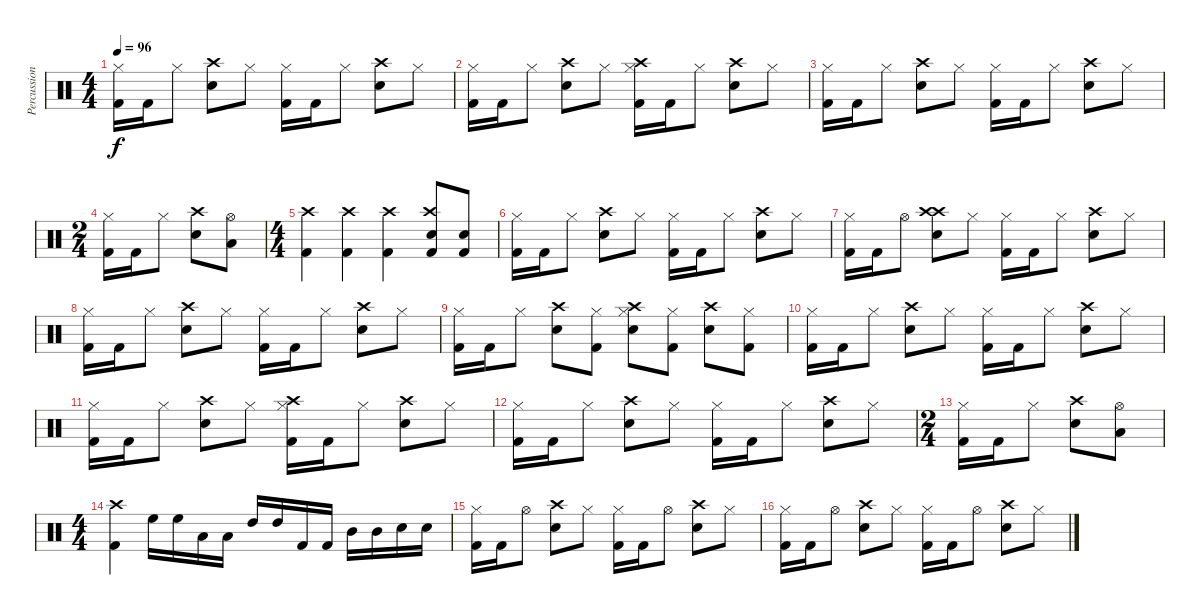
\track ("Percussion" "Percussion") {instrument percussion}
\staff {score}
\articulation defaults
\ts (4 4)
\tempo 96
\clef neutral
\ks c
("Hi-Hat (closed)" "Kick (hit) 2").16{dy f} "Kick (hit) 2".16 "Hi-Hat (closed)".8 ("Crash high (hit)" "Snare (hit) 2").8 "Hi-Hat (closed)".8 ("Hi-Hat (closed)" "Kick (hit) 2").16 "Kick (hit) 2".16 "Hi-Hat (closed)".8 ("Crash high (hit)" "Snare (hit) 2").8 "Hi-Hat (closed)".8 |
("Hi-Hat (closed)" "Kick (hit) 2").16 "Kick (hit) 2".16 "Hi-Hat (closed)".8 ("Crash high (hit)" "Snare (hit) 2").8 "Hi-Hat (closed)".8 ("Hi-Hat (closed)" "Crash high (hit)" "Kick (hit) 2").16 "Kick (hit) 2".16 "Hi-Hat (closed)".8 ("Crash high (hit)" "Snare (hit) 2").8 "Hi-Hat (closed)".8 |
("Hi-Hat (closed)" "Kick (hit) 2").16 "Kick (hit) 2".16 "Hi-Hat (closed)".8 ("Crash high (hit)" "Snare (hit) 2").8 "Hi-Hat (closed)".8 ("Hi-Hat (closed)" "Kick (hit) 2").16 "Kick (hit) 2".16 "Hi-Hat (closed)".8 ("Crash high (hit)" "Snare (hit) 2").8 "Hi-Hat (closed)".8 |
\ts (2 4)
("Hi-Hat (closed)" "Kick (hit) 2").16 "Kick (hit) 2".16 "Hi-Hat (closed)".8 ("Crash high (hit)" "Snare (hit) 2").8 ("Hi-Hat (open)" "Low Floor Tom (hit)").8 |
\ts (4 4)
("Crash high (hit)" "Kick (hit) 2").4 ("Crash high (hit)" "Kick (hit) 2").4 ("Crash high (hit)" "Kick (hit) 2").4 ("Crash high (hit)" "Kick (hit) 2" "Snare (hit) 2").8 ("Kick (hit) 2" "Snare (hit) 2").8 |
("Hi-Hat (closed)" "Kick (hit) 2").16 "Kick (hit) 2".16 "Hi-Hat (closed)".8 ("Crash high (hit)" "Snare (hit) 2").8 "Hi-Hat (closed)".8 ("Hi-Hat (closed)" "Kick (hit) 2").16 "Kick (hit) 2".16 "Hi-Hat (closed)".8 ("Crash high (hit)" "Snare (hit) 2").8 "Hi-Hat (closed)".8 |
("Hi-Hat (closed)" "Kick (hit) 2").16 "Kick (hit) 2".16 "Hi-Hat (open)".8 ("Crash high (hit)" "Crash high (hit)" "Snare (hit) 2").8 "Hi-Hat (closed)".8 ("Hi-Hat (closed)" "Kick (hit) 2").16 "Kick (hit) 2".16 "Hi-Hat (closed)".8 ("Crash high (hit)" "Snare (hit) 2").8 "Hi-Hat (closed)".8 |
("Hi-Hat (closed)" "Kick (hit) 2").16 "Kick (hit) 2".16 "Hi-Hat (closed)".8 ("Crash high (hit)" "Snare (hit) 2").8 "Hi-Hat (closed)".8 ("Hi-Hat (closed)" "Kick (hit) 2").16 "Kick (hit) 2".16 "Hi-Hat (closed)".8 ("Crash high (hit)" "Snare (hit) 2").8 "Hi-Hat (closed)".8 |
("Hi-Hat (closed)" "Kick (hit) 2").16 "Kick (hit) 2".16 "Hi-Hat (closed)".8 ("Crash high (hit)" "Snare (hit) 2").8 ("Hi-Hat (closed)" "Kick (hit) 2").8 ("Hi-Hat (closed)" "Crash high (hit)" "Snare (hit) 2").8 ("Hi-Hat (closed)" "Kick (hit) 2").8 ("Crash high (hit)" "Snare (hit) 2").8 ("Hi-Hat (closed)" "Kick (hit) 2").8 |
("Hi-Hat (closed)" "Kick (hit) 2").16 "Kick (hit) 2".16 "Hi-Hat (closed)".8 ("Crash high (hit)" "Snare (hit) 2").8 "Hi-Hat (closed)".8 ("Hi-Hat (closed)" "Kick (hit) 2").16 "Kick (hit) 2".16 "Hi-Hat (closed)".8 ("Crash high (hit)" "Snare (hit) 2").8 "Hi-Hat (closed)".8 |
("Hi-Hat (closed)" "Kick (hit) 2").16 "Kick (hit) 2".16 "Hi-Hat (closed)".8 ("Crash high (hit)" "Snare (hit) 2").8 "Hi-Hat (closed)".8 ("Hi-Hat (closed)" "Crash high (hit)" "Kick (hit) 2").16 "Kick (hit) 2".16 "Hi-Hat (closed)".8 ("Crash high (hit)" "Snare (hit) 2").8 "Hi-Hat (closed)".8 |
("Hi-Hat (closed)" "Kick (hit) 2").16 "Kick (hit) 2".16 "Hi-Hat (closed)".8 ("Crash high (hit)" "Snare (hit) 2").8 "Hi-Hat (closed)".8 ("Hi-Hat (closed)" "Kick (hit) 2").16 "Kick (hit) 2".16 "Hi-Hat (closed)".8 ("Crash high (hit)" "Snare (hit) 2").8 "Hi-Hat (closed)".8 |
\ts (2 4)
("Hi-Hat (closed)" "Kick (hit) 2").16 "Kick (hit) 2".16 "Hi-Hat (closed)".8 ("Crash high (hit)" "Snare (hit) 2").8 ("Hi-Hat (open)" "Low Floor Tom (hit)").8 |
\ts (4 4)
("Crash high (hit)" "Kick (hit) 2").4 "High Floor Tom (hit)".16 "High Floor Tom (hit)".16 "Low Floor Tom (hit)".16 "Low Floor Tom (hit)".16 "High Tom (hit)".16 "High Tom (hit)".16 "Kick (hit) 2".16 "Kick (hit) 2".16 "Mid Tom (hit)".16 "Mid Tom (hit)".16 "Snare (hit) 2".16 "Snare (hit) 2".16 |
("Hi-Hat (closed)" "Kick (hit) 2").16 "Kick (hit) 2".16 "Hi-Hat (open)".8 ("Crash high (hit)" "Snare (hit) 2").8 "Hi-Hat (closed)".8 ("Hi-Hat (closed)" "Kick (hit) 2").16 "Kick (hit) 2".16 "Hi-Hat (open)".8 ("Crash high (hit)" "Snare (hit) 2").8 "Hi-Hat (closed)".8 |
("Hi-Hat (closed)" "Kick (hit) 2").16{volume 0} "Kick (hit) 2".16 "Hi-Hat (open)".8 ("Crash high (hit)" "Snare (hit) 2").8 "Hi-Hat (closed)".8 ("Hi-Hat (closed)" "Kick (hit) 2").16 "Kick (hit) 2".16 "Hi-Hat (open)".8 ("Crash high (hit)" "Snare (hit) 2").8 "Hi-Hat (closed)".8
